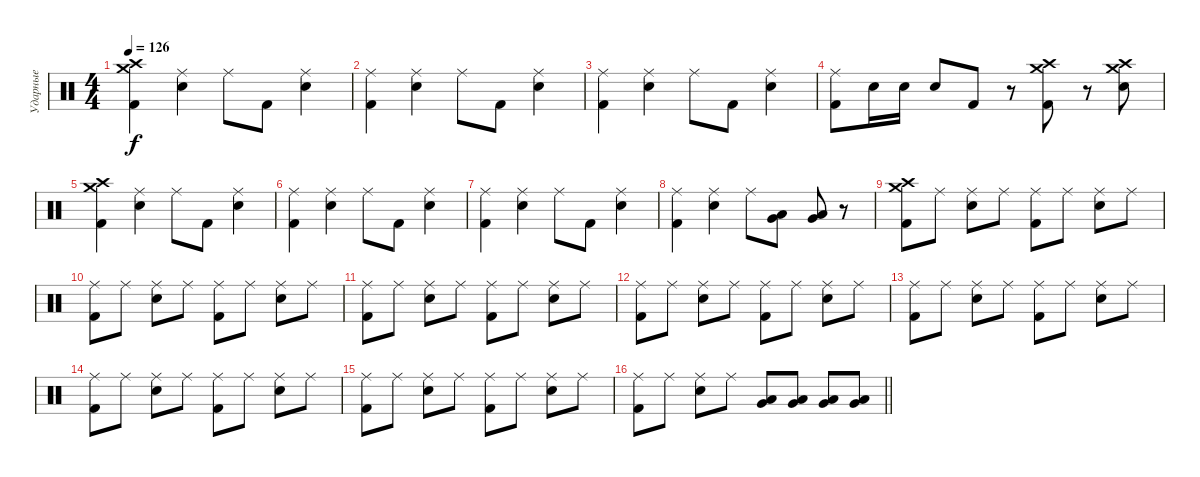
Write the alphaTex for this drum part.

\track ("Ударные" "Ударные") {instrument percussion}
\staff {score}
\articulation defaults
\ts (4 4)
\tempo 126
\clef neutral
\ks c
("Kick (hit) 2" "Crash high (hit)" "Crash medium (hit)").4{dy f} ("Snare (hit) 2" "Ride (middle)").4 "Ride (middle)".8 "Kick (hit) 2".8 ("Snare (hit) 2" "Ride (middle)").4 |
("Kick (hit) 2" "Ride (middle)").4 ("Snare (hit) 2" "Ride (middle)").4 "Ride (middle)".8 "Kick (hit) 2".8 ("Snare (hit) 2" "Ride (middle)").4 |
("Kick (hit) 2" "Ride (middle)").4 ("Snare (hit) 2" "Ride (middle)").4 "Ride (middle)".8 "Kick (hit) 2".8 ("Snare (hit) 2" "Ride (middle)").4 |
("Kick (hit) 2" "Ride (middle)").8 "Snare (hit) 2".16 "Snare (hit) 2".16 "Snare (hit) 2".8 "Kick (hit) 2".8 r.8 ("Kick (hit) 2" "Crash high (hit)" "Crash medium (hit)").8 r.8 ("Snare (hit) 2" "Crash high (hit)" "Crash medium (hit)").8 |
("Kick (hit) 2" "Crash high (hit)" "Crash medium (hit)").4 ("Snare (hit) 2" "Ride (middle)").4 "Ride (middle)".8 "Kick (hit) 2".8 ("Snare (hit) 2" "Ride (middle)").4 |
("Kick (hit) 2" "Ride (middle)").4 ("Snare (hit) 2" "Ride (middle)").4 "Ride (middle)".8 "Kick (hit) 2".8 ("Snare (hit) 2" "Ride (middle)").4 |
("Kick (hit) 2" "Ride (middle)").4 ("Snare (hit) 2" "Ride (middle)").4 "Ride (middle)".8 "Kick (hit) 2".8 ("Snare (hit) 2" "Ride (middle)").4 |
("Kick (hit) 2" "Ride (middle)").4 ("Snare (hit) 2" "Ride (middle)").4 "Ride (middle)".8 ("Low Tom (hit)" "Very Low Tom (hit)").8 ("Low Tom (hit)" "Very Low Tom (hit)").8 r.8 |
("Kick (hit) 2" "Crash high (hit)" "Crash medium (hit)").8 "Ride (middle)".8 ("Snare (hit) 2" "Ride (middle)").8 "Ride (middle)".8 ("Kick (hit) 2" "Ride (middle)").8 "Ride (middle)".8 ("Snare (hit) 2" "Ride (middle)").8 "Ride (middle)".8 |
("Kick (hit) 2" "Ride (middle)").8 "Ride (middle)".8 ("Snare (hit) 2" "Ride (middle)").8 "Ride (middle)".8 ("Kick (hit) 2" "Ride (middle)").8 "Ride (middle)".8 ("Snare (hit) 2" "Ride (middle)").8 "Ride (middle)".8 |
("Kick (hit) 2" "Ride (middle)").8 "Ride (middle)".8 ("Snare (hit) 2" "Ride (middle)").8 "Ride (middle)".8 ("Kick (hit) 2" "Ride (middle)").8 "Ride (middle)".8 ("Snare (hit) 2" "Ride (middle)").8 "Ride (middle)".8 |
("Kick (hit) 2" "Ride (middle)").8 "Ride (middle)".8 ("Snare (hit) 2" "Ride (middle)").8 "Ride (middle)".8 ("Kick (hit) 2" "Ride (middle)").8 "Ride (middle)".8 ("Snare (hit) 2" "Ride (middle)").8 "Ride (middle)".8 |
("Kick (hit) 2" "Ride (middle)").8 "Ride (middle)".8 ("Snare (hit) 2" "Ride (middle)").8 "Ride (middle)".8 ("Kick (hit) 2" "Ride (middle)").8 "Ride (middle)".8 ("Snare (hit) 2" "Ride (middle)").8 "Ride (middle)".8 |
("Kick (hit) 2" "Ride (middle)").8 "Ride (middle)".8 ("Snare (hit) 2" "Ride (middle)").8 "Ride (middle)".8 ("Kick (hit) 2" "Ride (middle)").8 "Ride (middle)".8 ("Snare (hit) 2" "Ride (middle)").8 "Ride (middle)".8 |
("Kick (hit) 2" "Ride (middle)").8 "Ride (middle)".8 ("Snare (hit) 2" "Ride (middle)").8 "Ride (middle)".8 ("Kick (hit) 2" "Ride (middle)").8 "Ride (middle)".8 ("Snare (hit) 2" "Ride (middle)").8 "Ride (middle)".8 |
\barLineRight lightlight
("Kick (hit) 2" "Ride (middle)").8 "Ride (middle)".8 ("Snare (hit) 2" "Ride (middle)").8 "Ride (middle)".8 ("Low Tom (hit)" "Very Low Tom (hit)").8 ("Low Tom (hit)" "Very Low Tom (hit)").8 ("Low Tom (hit)" "Very Low Tom (hit)").8 ("Low Tom (hit)" "Very Low Tom (hit)").8
